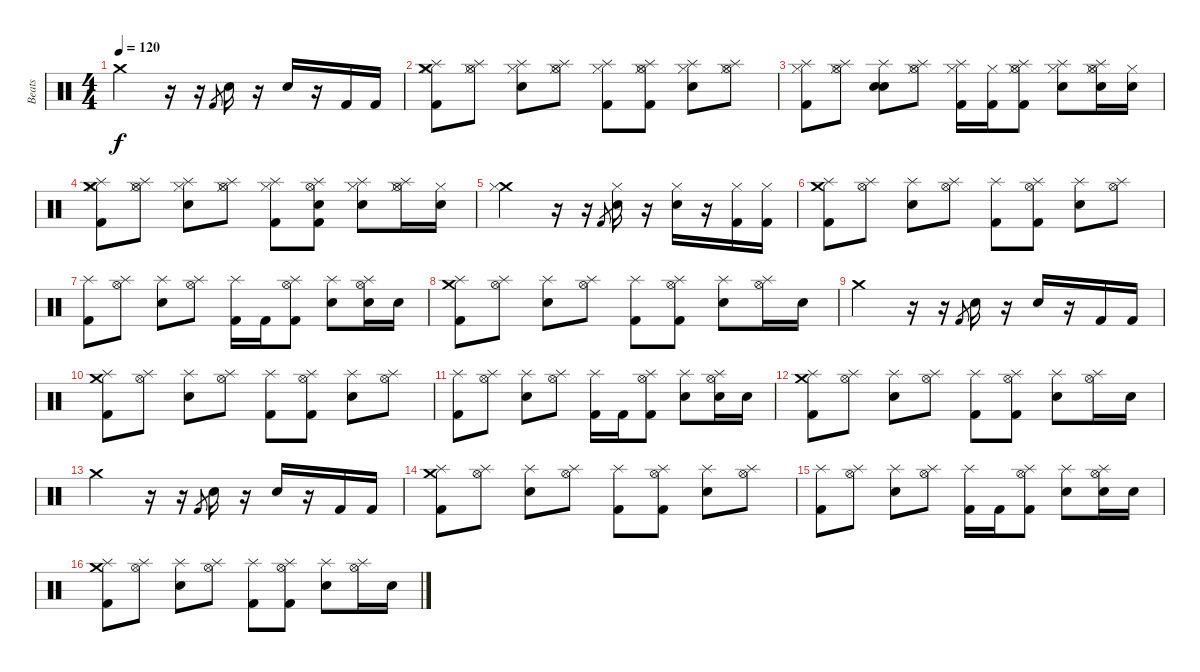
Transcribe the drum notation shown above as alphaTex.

\track ("Beats" "Beats") {instrument percussion}
\staff {score}
\articulation defaults
\ts (4 4)
\tempo 120
\clef neutral
\ks c "Crash medium (hit)".2{dy f}
r.16 r.16 "Kick (hit) 2".8{gr} "Electric Snare (hit)".16 r.16 "Electric Snare (hit)".16 r.16 "Kick (hit) 2".16 "Kick (hit) 2".16 |
("Kick (hit) 2" "Hi-Hat (closed)" "Crash medium (hit)" "Splash (hit)").8 ("Hi-Hat (closed)" "Hi-Hat (open)" "Splash (hit)").8 ("Electric Snare (hit)" "Hi-Hat (closed)" "Splash (hit)").8 ("Hi-Hat (closed)" "Hi-Hat (open)" "Splash (hit)").8 ("Kick (hit) 2" "Hi-Hat (closed)" "Splash (hit)").8 ("Kick (hit) 2" "Hi-Hat (closed)" "Hi-Hat (open)" "Splash (hit)").8 ("Electric Snare (hit)" "Hi-Hat (closed)" "Splash (hit)").8 ("Hi-Hat (closed)" "Hi-Hat (open)" "Splash (hit)").8 |
("Kick (hit) 2" "Hi-Hat (closed)" "Splash (hit)").8 ("Hi-Hat (closed)" "Hi-Hat (open)" "Splash (hit)").8 ("Electric Snare (hit)" "Snare (hit)" "Splash (hit)").8 ("Hi-Hat (closed)" "Hi-Hat (open)" "Splash (hit)").8 ("Kick (hit) 2" "Hi-Hat (closed)" "Splash (hit)").16 ("Kick (hit) 2" "Hi-Hat (closed)").16 ("Kick (hit) 2" "Hi-Hat (closed)" "Hi-Hat (open)" "Splash (hit)").8 ("Electric Snare (hit)" "Hi-Hat (closed)" "Splash (hit)").8 ("Electric Snare (hit)" "Hi-Hat (closed)" "Hi-Hat (open)" "Splash (hit)").16 ("Electric Snare (hit)" "Hi-Hat (closed)").16 |
("Kick (hit) 2" "Hi-Hat (closed)" "Crash medium (hit)" "Splash (hit)").8 ("Hi-Hat (closed)" "Hi-Hat (open)" "Splash (hit)").8 ("Electric Snare (hit)" "Hi-Hat (closed)" "Splash (hit)").8 ("Hi-Hat (closed)" "Hi-Hat (open)" "Splash (hit)").8 ("Kick (hit) 2" "Hi-Hat (closed)" "Splash (hit)").8 ("Kick (hit) 2" "Snare (hit)" "Hi-Hat (open)" "Splash (hit)").8 ("Electric Snare (hit)" "Hi-Hat (closed)" "Splash (hit)").8 ("Hi-Hat (closed)" "Hi-Hat (open)" "Splash (hit)").16 ("Electric Snare (hit)" "Hi-Hat (closed)").16 |
("Crash medium (hit)" "Hi-Hat (closed)").2 r.16 r.16 "Kick (hit) 2".8{gr} ("Electric Snare (hit)" "Hi-Hat (closed)").16 r.16 ("Electric Snare (hit)" "Hi-Hat (closed)").16 r.16 ("Kick (hit) 2" "Hi-Hat (closed)").16 ("Kick (hit) 2" "Hi-Hat (closed)").16 |
("Kick (hit) 2" "Crash medium (hit)" "Splash (hit)").8 ("Hi-Hat (open)" "Splash (hit)").8 ("Electric Snare (hit)" "Splash (hit)").8 ("Hi-Hat (open)" "Splash (hit)").8 ("Kick (hit) 2" "Splash (hit)").8 ("Kick (hit) 2" "Hi-Hat (open)" "Splash (hit)").8 ("Electric Snare (hit)" "Splash (hit)").8 ("Hi-Hat (open)" "Splash (hit)").8 |
("Kick (hit) 2" "Splash (hit)").8 ("Hi-Hat (open)" "Splash (hit)").8 ("Electric Snare (hit)" "Splash (hit)").8 ("Hi-Hat (open)" "Splash (hit)").8 ("Kick (hit) 2" "Splash (hit)").16 "Kick (hit) 2".16 ("Kick (hit) 2" "Hi-Hat (open)" "Splash (hit)").8 ("Electric Snare (hit)" "Splash (hit)").8 ("Electric Snare (hit)" "Hi-Hat (open)" "Splash (hit)").16 "Electric Snare (hit)".16 |
("Kick (hit) 2" "Crash medium (hit)" "Splash (hit)").8 ("Hi-Hat (open)" "Splash (hit)").8 ("Electric Snare (hit)" "Splash (hit)").8 ("Hi-Hat (open)" "Splash (hit)").8 ("Kick (hit) 2" "Splash (hit)").8 ("Kick (hit) 2" "Hi-Hat (open)" "Splash (hit)").8 ("Electric Snare (hit)" "Splash (hit)").8 ("Hi-Hat (open)" "Splash (hit)").16 "Electric Snare (hit)".16 |
"Crash medium (hit)".2 r.16 r.16 "Kick (hit) 2".8{gr} "Electric Snare (hit)".16 r.16 "Electric Snare (hit)".16 r.16 "Kick (hit) 2".16 "Kick (hit) 2".16 |
("Kick (hit) 2" "Crash medium (hit)" "Splash (hit)").8 ("Hi-Hat (open)" "Splash (hit)").8 ("Electric Snare (hit)" "Splash (hit)").8 ("Hi-Hat (open)" "Splash (hit)").8 ("Kick (hit) 2" "Splash (hit)").8 ("Kick (hit) 2" "Hi-Hat (open)" "Splash (hit)").8 ("Electric Snare (hit)" "Splash (hit)").8 ("Hi-Hat (open)" "Splash (hit)").8 |
("Kick (hit) 2" "Splash (hit)").8 ("Hi-Hat (open)" "Splash (hit)").8 ("Electric Snare (hit)" "Splash (hit)").8 ("Hi-Hat (open)" "Splash (hit)").8 ("Kick (hit) 2" "Splash (hit)").16 "Kick (hit) 2".16 ("Kick (hit) 2" "Hi-Hat (open)" "Splash (hit)").8 ("Electric Snare (hit)" "Splash (hit)").8 ("Electric Snare (hit)" "Hi-Hat (open)" "Splash (hit)").16 "Electric Snare (hit)".16 |
("Kick (hit) 2" "Crash medium (hit)" "Splash (hit)").8 ("Hi-Hat (open)" "Splash (hit)").8 ("Electric Snare (hit)" "Splash (hit)").8 ("Hi-Hat (open)" "Splash (hit)").8 ("Kick (hit) 2" "Splash (hit)").8 ("Kick (hit) 2" "Hi-Hat (open)" "Splash (hit)").8 ("Electric Snare (hit)" "Splash (hit)").8 ("Hi-Hat (open)" "Splash (hit)").16 "Electric Snare (hit)".16 |
"Crash medium (hit)".2 r.16 r.16 "Kick (hit) 2".8{gr} "Electric Snare (hit)".16 r.16 "Electric Snare (hit)".16 r.16 "Kick (hit) 2".16 "Kick (hit) 2".16 |
("Kick (hit) 2" "Crash medium (hit)" "Splash (hit)").8 ("Hi-Hat (open)" "Splash (hit)").8 ("Electric Snare (hit)" "Splash (hit)").8 ("Hi-Hat (open)" "Splash (hit)").8 ("Kick (hit) 2" "Splash (hit)").8 ("Kick (hit) 2" "Hi-Hat (open)" "Splash (hit)").8 ("Electric Snare (hit)" "Splash (hit)").8 ("Hi-Hat (open)" "Splash (hit)").8 |
("Kick (hit) 2" "Splash (hit)").8 ("Hi-Hat (open)" "Splash (hit)").8 ("Electric Snare (hit)" "Splash (hit)").8 ("Hi-Hat (open)" "Splash (hit)").8 ("Kick (hit) 2" "Splash (hit)").16 "Kick (hit) 2".16 ("Kick (hit) 2" "Hi-Hat (open)" "Splash (hit)").8 ("Electric Snare (hit)" "Splash (hit)").8 ("Electric Snare (hit)" "Hi-Hat (open)" "Splash (hit)").16 "Electric Snare (hit)".16 |
("Kick (hit) 2" "Crash medium (hit)" "Splash (hit)").8 ("Hi-Hat (open)" "Splash (hit)").8 ("Electric Snare (hit)" "Splash (hit)").8 ("Hi-Hat (open)" "Splash (hit)").8 ("Kick (hit) 2" "Splash (hit)").8 ("Kick (hit) 2" "Hi-Hat (open)" "Splash (hit)").8 ("Electric Snare (hit)" "Splash (hit)").8 ("Hi-Hat (open)" "Splash (hit)").16 "Electric Snare (hit)".16
